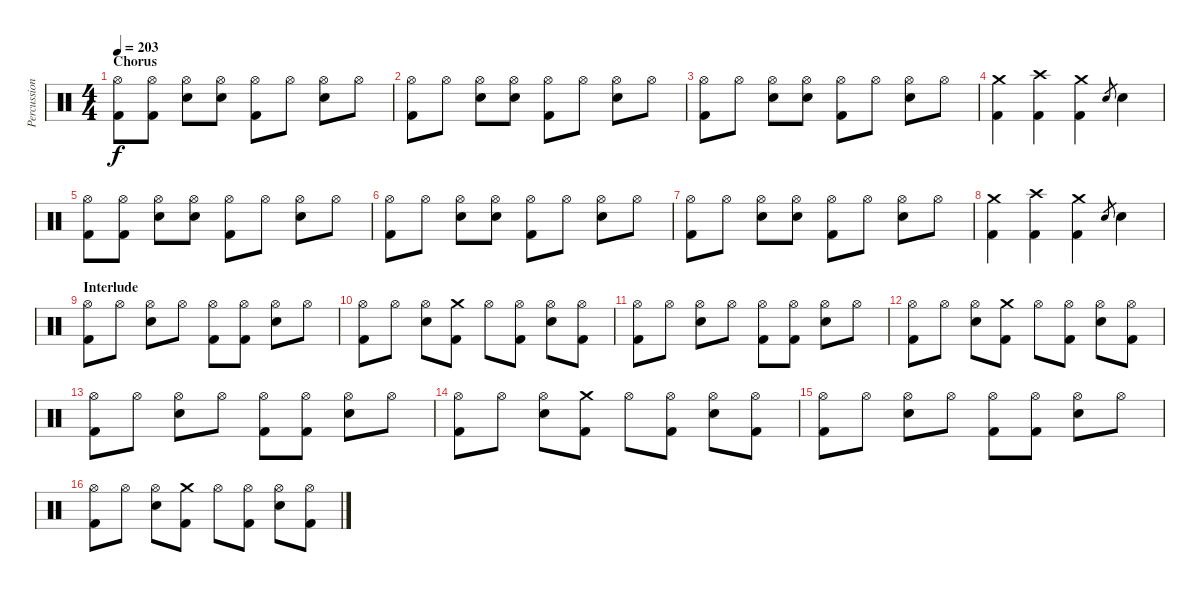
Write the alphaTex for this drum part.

\track ("Percussion" "Percussion") {instrument percussion}
\staff {score}
\articulation defaults
\ts (4 4)
\section ("" "Chorus")
\tempo 203
\clef neutral
\ks c
("Hi-Hat (open)" "Kick (hit) 2").8{dy f} ("Hi-Hat (open)" "Kick (hit) 2").8 ("Hi-Hat (open)" "Electric Snare (hit)").8 ("Hi-Hat (open)" "Electric Snare (hit)").8 ("Hi-Hat (open)" "Kick (hit) 2").8 "Hi-Hat (open)".8 ("Hi-Hat (open)" "Electric Snare (hit)").8 "Hi-Hat (open)".8 |
("Hi-Hat (open)" "Kick (hit) 2").8 "Hi-Hat (open)".8 ("Hi-Hat (open)" "Electric Snare (hit)").8 ("Hi-Hat (open)" "Electric Snare (hit)").8 ("Hi-Hat (open)" "Kick (hit) 2").8 "Hi-Hat (open)".8 ("Hi-Hat (open)" "Electric Snare (hit)").8 "Hi-Hat (open)".8 |
("Hi-Hat (open)" "Kick (hit) 2").8 "Hi-Hat (open)".8 ("Hi-Hat (open)" "Electric Snare (hit)").8 ("Hi-Hat (open)" "Electric Snare (hit)").8 ("Hi-Hat (open)" "Kick (hit) 2").8 "Hi-Hat (open)".8 ("Hi-Hat (open)" "Electric Snare (hit)").8 "Hi-Hat (open)".8 |
("Crash medium (hit)" "Kick (hit) 2").4 ("Crash high (hit)" "Kick (hit) 2").4 ("Crash medium (hit)" "Kick (hit) 2").4 "Electric Snare (hit)".8{gr} "Electric Snare (hit)".4 |
("Hi-Hat (open)" "Kick (hit) 2").8 ("Hi-Hat (open)" "Kick (hit) 2").8 ("Hi-Hat (open)" "Electric Snare (hit)").8 ("Hi-Hat (open)" "Electric Snare (hit)").8 ("Hi-Hat (open)" "Kick (hit) 2").8 "Hi-Hat (open)".8 ("Hi-Hat (open)" "Electric Snare (hit)").8 "Hi-Hat (open)".8 |
("Hi-Hat (open)" "Kick (hit) 2").8 "Hi-Hat (open)".8 ("Hi-Hat (open)" "Electric Snare (hit)").8 ("Hi-Hat (open)" "Electric Snare (hit)").8 ("Hi-Hat (open)" "Kick (hit) 2").8 "Hi-Hat (open)".8 ("Hi-Hat (open)" "Electric Snare (hit)").8 "Hi-Hat (open)".8 |
("Hi-Hat (open)" "Kick (hit) 2").8 "Hi-Hat (open)".8 ("Hi-Hat (open)" "Electric Snare (hit)").8 ("Hi-Hat (open)" "Electric Snare (hit)").8 ("Hi-Hat (open)" "Kick (hit) 2").8 "Hi-Hat (open)".8 ("Hi-Hat (open)" "Electric Snare (hit)").8 "Hi-Hat (open)".8 |
("Crash medium (hit)" "Kick (hit) 2").4 ("Crash high (hit)" "Kick (hit) 2").4 ("Crash medium (hit)" "Kick (hit) 2").4 "Electric Snare (hit)".8{gr} "Electric Snare (hit)".4 |
\section ("" "Interlude")
("Hi-Hat (open)" "Kick (hit) 2").8 "Hi-Hat (open)".8 ("Hi-Hat (open)" "Electric Snare (hit)").8 "Hi-Hat (open)".8 ("Hi-Hat (open)" "Kick (hit) 2").8 ("Hi-Hat (open)" "Kick (hit) 2").8 ("Hi-Hat (open)" "Electric Snare (hit)").8 "Hi-Hat (open)".8 |
("Hi-Hat (open)" "Kick (hit) 2").8 "Hi-Hat (open)".8 ("Hi-Hat (open)" "Electric Snare (hit)").8 ("Crash medium (hit)" "Kick (hit) 2").8 "Hi-Hat (open)".8 ("Hi-Hat (open)" "Kick (hit) 2").8 ("Hi-Hat (open)" "Electric Snare (hit)").8 ("Hi-Hat (open)" "Kick (hit) 2").8 |
("Hi-Hat (open)" "Kick (hit) 2").8 "Hi-Hat (open)".8 ("Hi-Hat (open)" "Electric Snare (hit)").8 "Hi-Hat (open)".8 ("Hi-Hat (open)" "Kick (hit) 2").8 ("Hi-Hat (open)" "Kick (hit) 2").8 ("Hi-Hat (open)" "Electric Snare (hit)").8 "Hi-Hat (open)".8 |
("Hi-Hat (open)" "Kick (hit) 2").8 "Hi-Hat (open)".8 ("Hi-Hat (open)" "Electric Snare (hit)").8 ("Crash medium (hit)" "Kick (hit) 2").8 "Hi-Hat (open)".8 ("Hi-Hat (open)" "Kick (hit) 2").8 ("Hi-Hat (open)" "Electric Snare (hit)").8 ("Hi-Hat (open)" "Kick (hit) 2").8 |
("Hi-Hat (open)" "Kick (hit) 2").8 "Hi-Hat (open)".8 ("Hi-Hat (open)" "Electric Snare (hit)").8 "Hi-Hat (open)".8 ("Hi-Hat (open)" "Kick (hit) 2").8 ("Hi-Hat (open)" "Kick (hit) 2").8 ("Hi-Hat (open)" "Electric Snare (hit)").8 "Hi-Hat (open)".8 |
("Hi-Hat (open)" "Kick (hit) 2").8 "Hi-Hat (open)".8 ("Hi-Hat (open)" "Electric Snare (hit)").8 ("Crash medium (hit)" "Kick (hit) 2").8 "Hi-Hat (open)".8 ("Hi-Hat (open)" "Kick (hit) 2").8 ("Hi-Hat (open)" "Electric Snare (hit)").8 ("Hi-Hat (open)" "Kick (hit) 2").8 |
("Hi-Hat (open)" "Kick (hit) 2").8 "Hi-Hat (open)".8 ("Hi-Hat (open)" "Electric Snare (hit)").8 "Hi-Hat (open)".8 ("Hi-Hat (open)" "Kick (hit) 2").8 ("Hi-Hat (open)" "Kick (hit) 2").8 ("Hi-Hat (open)" "Electric Snare (hit)").8 "Hi-Hat (open)".8 |
("Hi-Hat (open)" "Kick (hit) 2").8 "Hi-Hat (open)".8 ("Hi-Hat (open)" "Electric Snare (hit)").8 ("Crash medium (hit)" "Kick (hit) 2").8 "Hi-Hat (open)".8 ("Hi-Hat (open)" "Kick (hit) 2").8 ("Hi-Hat (open)" "Electric Snare (hit)").8 ("Hi-Hat (open)" "Kick (hit) 2").8
